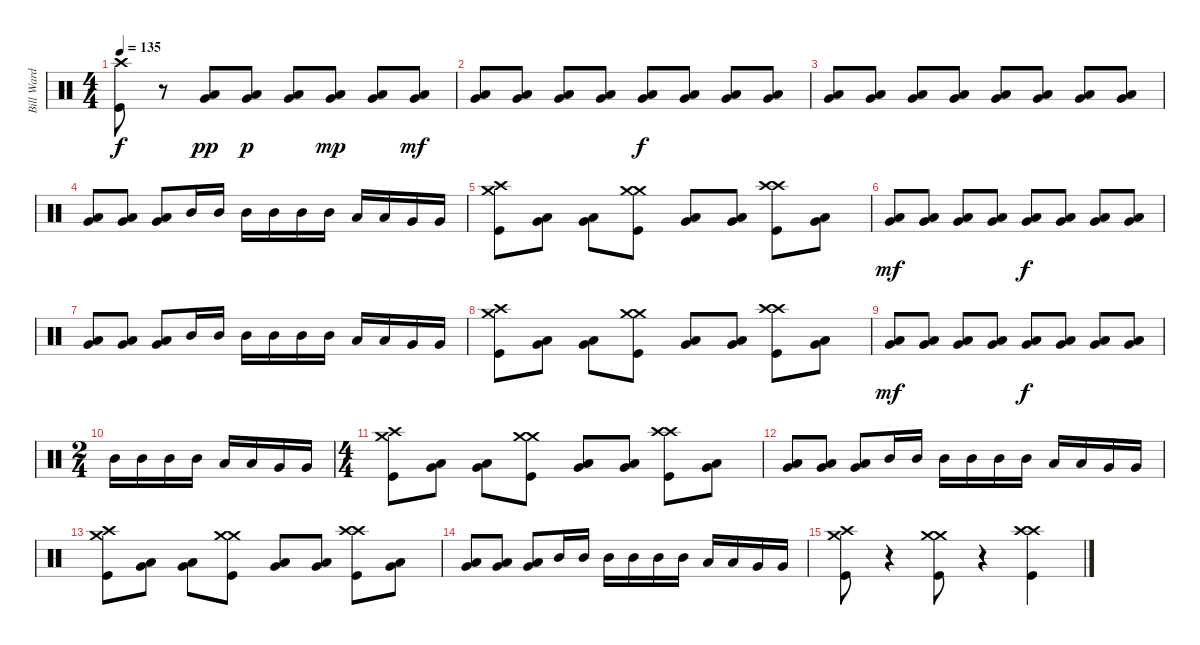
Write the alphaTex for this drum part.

\track ("Bill Ward" "Bill Ward") {instrument percussion}
\staff {score}
\articulation defaults
\ts (4 4)
\tempo 135
\clef neutral
\ks c
("Crash high (hit)" "Kick (hit)").8{dy f} r.8 ("Low Tom (hit)" "Very Low Tom (hit)").8{dy pp} ("Low Tom (hit)" "Very Low Tom (hit)").8{dy p} ("Low Tom (hit)" "Very Low Tom (hit)").8 ("Low Tom (hit)" "Very Low Tom (hit)").8{dy mp} ("Low Tom (hit)" "Very Low Tom (hit)").8 ("Low Tom (hit)" "Very Low Tom (hit)").8{dy mf} |
("Low Tom (hit)" "Very Low Tom (hit)").8 ("Low Tom (hit)" "Very Low Tom (hit)").8 ("Low Tom (hit)" "Very Low Tom (hit)").8 ("Low Tom (hit)" "Very Low Tom (hit)").8 ("Low Tom (hit)" "Very Low Tom (hit)").8{dy f} ("Low Tom (hit)" "Very Low Tom (hit)").8 ("Low Tom (hit)" "Very Low Tom (hit)").8 ("Low Tom (hit)" "Very Low Tom (hit)").8 |
("Low Tom (hit)" "Very Low Tom (hit)").8 ("Low Tom (hit)" "Very Low Tom (hit)").8 ("Low Tom (hit)" "Very Low Tom (hit)").8 ("Low Tom (hit)" "Very Low Tom (hit)").8 ("Low Tom (hit)" "Very Low Tom (hit)").8 ("Low Tom (hit)" "Very Low Tom (hit)").8 ("Low Tom (hit)" "Very Low Tom (hit)").8 ("Low Tom (hit)" "Very Low Tom (hit)").8 |
("Low Tom (hit)" "Very Low Tom (hit)").8 ("Low Tom (hit)" "Very Low Tom (hit)").8 ("Low Tom (hit)" "Very Low Tom (hit)").8 "Mid Tom (hit)".16 "Mid Tom (hit)".16 "Mid Tom (hit)".16 "Mid Tom (hit)".16 "Mid Tom (hit)".16 "Mid Tom (hit)".16 "Low Tom (hit)".16 "Low Tom (hit)".16 "Very Low Tom (hit)".16 "Very Low Tom (hit)".16 |
("Crash medium (hit)" "Crash high (hit)" "Kick (hit)").8 ("Low Tom (hit)" "Very Low Tom (hit)").8 ("Low Tom (hit)" "Very Low Tom (hit)").8 ("Crash medium (hit)" "Crash medium (hit)" "Kick (hit)").8 ("Low Tom (hit)" "Very Low Tom (hit)").8 ("Low Tom (hit)" "Very Low Tom (hit)").8 ("Crash high (hit)" "Crash high (hit)" "Kick (hit)").8 ("Low Tom (hit)" "Very Low Tom (hit)").8 |
("Low Tom (hit)" "Very Low Tom (hit)").8{dy mf} ("Low Tom (hit)" "Very Low Tom (hit)").8 ("Low Tom (hit)" "Very Low Tom (hit)").8 ("Low Tom (hit)" "Very Low Tom (hit)").8 ("Low Tom (hit)" "Very Low Tom (hit)").8{dy f} ("Low Tom (hit)" "Very Low Tom (hit)").8 ("Low Tom (hit)" "Very Low Tom (hit)").8 ("Low Tom (hit)" "Very Low Tom (hit)").8 |
("Low Tom (hit)" "Very Low Tom (hit)").8 ("Low Tom (hit)" "Very Low Tom (hit)").8 ("Low Tom (hit)" "Very Low Tom (hit)").8 "Mid Tom (hit)".16 "Mid Tom (hit)".16 "Mid Tom (hit)".16 "Mid Tom (hit)".16 "Mid Tom (hit)".16 "Mid Tom (hit)".16 "Low Tom (hit)".16 "Low Tom (hit)".16 "Very Low Tom (hit)".16 "Very Low Tom (hit)".16 |
("Crash medium (hit)" "Crash high (hit)" "Kick (hit)").8 ("Low Tom (hit)" "Very Low Tom (hit)").8 ("Low Tom (hit)" "Very Low Tom (hit)").8 ("Crash medium (hit)" "Crash medium (hit)" "Kick (hit)").8 ("Low Tom (hit)" "Very Low Tom (hit)").8 ("Low Tom (hit)" "Very Low Tom (hit)").8 ("Crash high (hit)" "Crash high (hit)" "Kick (hit)").8 ("Low Tom (hit)" "Very Low Tom (hit)").8 |
("Low Tom (hit)" "Very Low Tom (hit)").8{dy mf} ("Low Tom (hit)" "Very Low Tom (hit)").8 ("Low Tom (hit)" "Very Low Tom (hit)").8 ("Low Tom (hit)" "Very Low Tom (hit)").8 ("Low Tom (hit)" "Very Low Tom (hit)").8{dy f} ("Low Tom (hit)" "Very Low Tom (hit)").8 ("Low Tom (hit)" "Very Low Tom (hit)").8 ("Low Tom (hit)" "Very Low Tom (hit)").8 |
\ts (2 4)
"Mid Tom (hit)".16 "Mid Tom (hit)".16 "Mid Tom (hit)".16 "Mid Tom (hit)".16 "Low Tom (hit)".16 "Low Tom (hit)".16 "Very Low Tom (hit)".16 "Very Low Tom (hit)".16 |
\ts (4 4)
("Crash medium (hit)" "Crash high (hit)" "Kick (hit)").8 ("Low Tom (hit)" "Very Low Tom (hit)").8 ("Low Tom (hit)" "Very Low Tom (hit)").8 ("Crash medium (hit)" "Crash medium (hit)" "Kick (hit)").8 ("Low Tom (hit)" "Very Low Tom (hit)").8 ("Low Tom (hit)" "Very Low Tom (hit)").8 ("Crash high (hit)" "Crash high (hit)" "Kick (hit)").8 ("Low Tom (hit)" "Very Low Tom (hit)").8 |
("Low Tom (hit)" "Very Low Tom (hit)").8 ("Low Tom (hit)" "Very Low Tom (hit)").8 ("Low Tom (hit)" "Very Low Tom (hit)").8 "Mid Tom (hit)".16 "Mid Tom (hit)".16 "Mid Tom (hit)".16 "Mid Tom (hit)".16 "Mid Tom (hit)".16 "Mid Tom (hit)".16 "Low Tom (hit)".16 "Low Tom (hit)".16 "Very Low Tom (hit)".16 "Very Low Tom (hit)".16 |
("Crash medium (hit)" "Crash high (hit)" "Kick (hit)").8 ("Low Tom (hit)" "Very Low Tom (hit)").8 ("Low Tom (hit)" "Very Low Tom (hit)").8 ("Crash medium (hit)" "Crash medium (hit)" "Kick (hit)").8 ("Low Tom (hit)" "Very Low Tom (hit)").8 ("Low Tom (hit)" "Very Low Tom (hit)").8 ("Crash high (hit)" "Crash high (hit)" "Kick (hit)").8 ("Low Tom (hit)" "Very Low Tom (hit)").8 |
("Low Tom (hit)" "Very Low Tom (hit)").8 ("Low Tom (hit)" "Very Low Tom (hit)").8 ("Low Tom (hit)" "Very Low Tom (hit)").8 "Mid Tom (hit)".16 "Mid Tom (hit)".16 "Mid Tom (hit)".16 "Mid Tom (hit)".16 "Mid Tom (hit)".16 "Mid Tom (hit)".16 "Low Tom (hit)".16 "Low Tom (hit)".16 "Very Low Tom (hit)".16 "Very Low Tom (hit)".16 |
("Crash medium (hit)" "Crash high (hit)" "Kick (hit)").8 r.4 ("Crash medium (hit)" "Crash medium (hit)" "Kick (hit)").8 r.4 ("Crash high (hit)" "Crash high (hit)" "Kick (hit)").4
